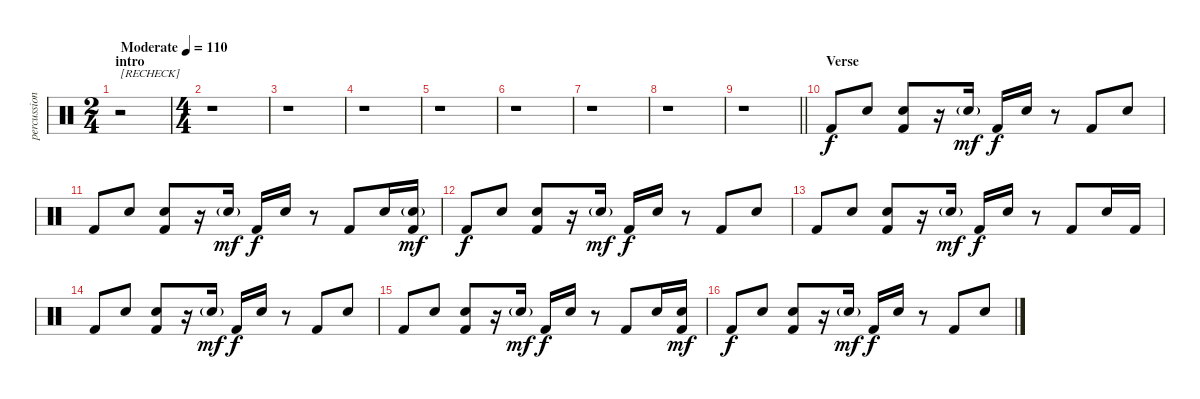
\track ("percussion []" "percussion") {instrument percussion}
\staff {score}
\articulation defaults
\ts (2 4)
\section ("" "intro")
\tempo (110 "Moderate")
\clef neutral
\ks c
r.2{txt "[RECHECK]" dy f} |
\ts (4 4)
r.1 |
r.1 |
r.1 |
r.1 |
r.1 |
r.1 |
r.1 |
\barLineRight lightlight
r.1 |
\section ("" "Verse")
"Kick (hit) 2".8 "Electric Snare (hit)".8 ("Electric Snare (hit)" "Kick (hit) 2").8 r.16 "Electric Snare (hit)"{g}.16{dy mf} "Kick (hit) 2".16{dy f} "Electric Snare (hit)".16 r.8 "Kick (hit) 2".8 "Electric Snare (hit)".8 |
"Kick (hit) 2".8 "Electric Snare (hit)".8 ("Electric Snare (hit)" "Kick (hit) 2").8 r.16 "Electric Snare (hit)"{g}.16{dy mf} "Kick (hit) 2".16{dy f} "Electric Snare (hit)".16 r.8 "Kick (hit) 2".8 "Electric Snare (hit)".16 ("Electric Snare (hit)"{g} "Kick (hit) 2").16{dy mf} |
"Kick (hit) 2".8{dy f} "Electric Snare (hit)".8 ("Electric Snare (hit)" "Kick (hit) 2").8 r.16 "Electric Snare (hit)"{g}.16{dy mf} "Kick (hit) 2".16{dy f} "Electric Snare (hit)".16 r.8 "Kick (hit) 2".8 "Electric Snare (hit)".8 |
"Kick (hit) 2".8 "Electric Snare (hit)".8 ("Electric Snare (hit)" "Kick (hit) 2").8 r.16 "Electric Snare (hit)"{g}.16{dy mf} "Kick (hit) 2".16{dy f} "Electric Snare (hit)".16 r.8 "Kick (hit) 2".8 "Electric Snare (hit)".16 "Kick (hit) 2".16 |
"Kick (hit) 2".8 "Electric Snare (hit)".8 ("Electric Snare (hit)" "Kick (hit) 2").8 r.16 "Electric Snare (hit)"{g}.16{dy mf} "Kick (hit) 2".16{dy f} "Electric Snare (hit)".16 r.8 "Kick (hit) 2".8 "Electric Snare (hit)".8 |
"Kick (hit) 2".8 "Electric Snare (hit)".8 ("Electric Snare (hit)" "Kick (hit) 2").8 r.16 "Electric Snare (hit)"{g}.16{dy mf} "Kick (hit) 2".16{dy f} "Electric Snare (hit)".16 r.8 "Kick (hit) 2".8 "Electric Snare (hit)".16 ("Electric Snare (hit)" "Kick (hit) 2").16{dy mf} |
"Kick (hit) 2".8{dy f} "Electric Snare (hit)".8 ("Electric Snare (hit)" "Kick (hit) 2").8 r.16 "Electric Snare (hit)"{g}.16{dy mf} "Kick (hit) 2".16{dy f} "Electric Snare (hit)".16 r.8 "Kick (hit) 2".8 "Electric Snare (hit)".8
